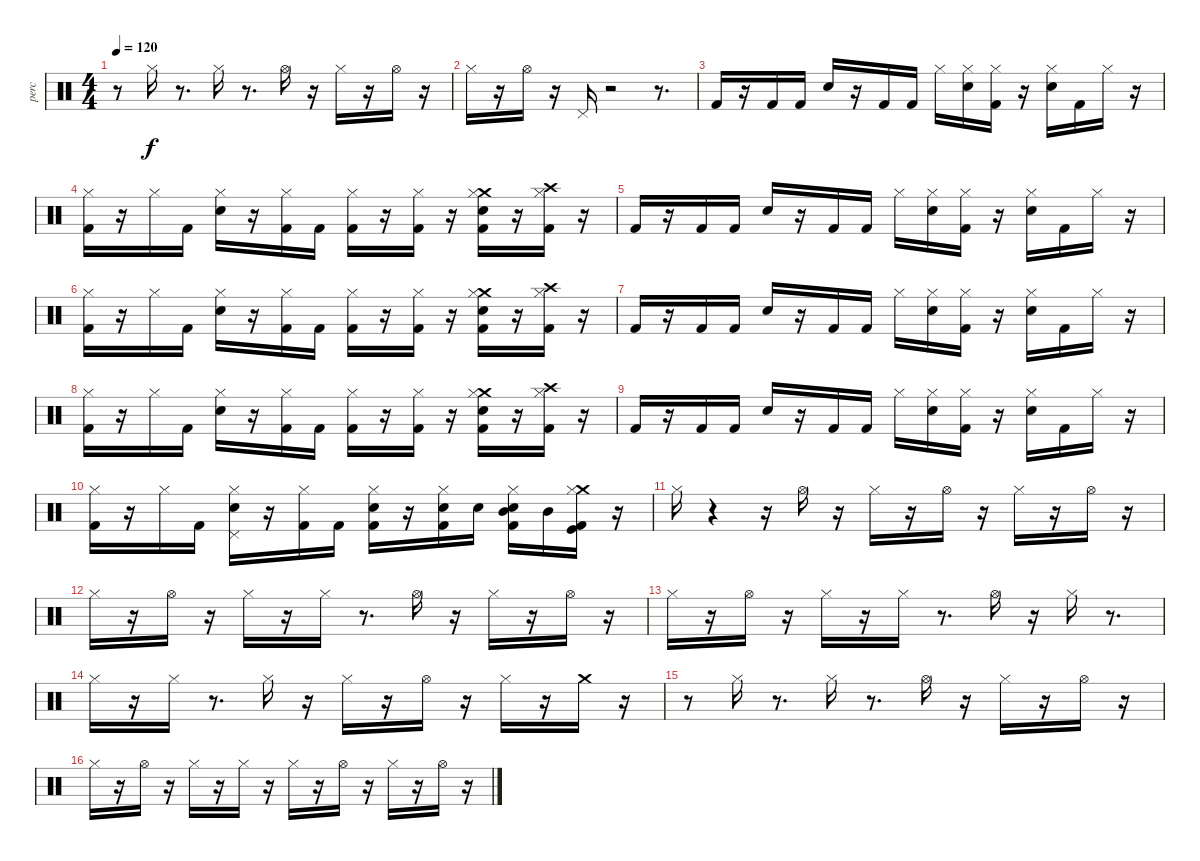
\track ("perc" "perc") {instrument percussion}
\staff {score}
\articulation defaults
\ts (4 4)
\tempo 120
\clef neutral
\ks c
r.8{dy f} "Hi-Hat (closed)".16 r.8{d} "Hi-Hat (closed)".16 r.8{d} "Hi-Hat (open)".16 r.16 "Hi-Hat (closed)".16 r.16 "Hi-Hat (open)".16 r.16 |
"Hi-Hat (closed)".16 r.16 "Hi-Hat (open)".16 r.16 "Pedal Hi-Hat (hit)".16 r.2 r.8{d} |
"Kick (hit) 2".16 r.16 "Kick (hit) 2".16 "Kick (hit) 2".16 "Electric Snare (hit)".16 r.16 "Kick (hit) 2".16 "Kick (hit) 2".16 "Hi-Hat (closed)".16 ("Hi-Hat (closed)" "Electric Snare (hit)").16 ("Hi-Hat (closed)" "Kick (hit) 2").16 r.16 ("Hi-Hat (closed)" "Electric Snare (hit)").16 "Kick (hit) 2".16 "Hi-Hat (closed)".16 r.16 |
("Kick (hit) 2" "Hi-Hat (closed)").16 r.16 "Hi-Hat (closed)".16 "Kick (hit) 2".16 ("Electric Snare (hit)" "Hi-Hat (closed)").16 r.16 ("Kick (hit) 2" "Hi-Hat (closed)").16 "Kick (hit) 2".16 ("Kick (hit) 2" "Hi-Hat (closed)").16 r.16 ("Kick (hit) 2" "Hi-Hat (closed)").16 r.16 ("Crash medium (hit)" "Electric Snare (hit)" "Kick (hit) 2" "Hi-Hat (closed)").16 r.16 ("Crash high (hit)" "Kick (hit) 2" "Hi-Hat (closed)").16 r.16 |
"Kick (hit) 2".16 r.16 "Kick (hit) 2".16 "Kick (hit) 2".16 "Electric Snare (hit)".16 r.16 "Kick (hit) 2".16 "Kick (hit) 2".16 "Hi-Hat (closed)".16 ("Hi-Hat (closed)" "Electric Snare (hit)").16 ("Hi-Hat (closed)" "Kick (hit) 2").16 r.16 ("Hi-Hat (closed)" "Electric Snare (hit)").16 "Kick (hit) 2".16 "Hi-Hat (closed)".16 r.16 |
("Kick (hit) 2" "Hi-Hat (closed)").16 r.16 "Hi-Hat (closed)".16 "Kick (hit) 2".16 ("Electric Snare (hit)" "Hi-Hat (closed)").16 r.16 ("Kick (hit) 2" "Hi-Hat (closed)").16 "Kick (hit) 2".16 ("Kick (hit) 2" "Hi-Hat (closed)").16 r.16 ("Kick (hit) 2" "Hi-Hat (closed)").16 r.16 ("Crash medium (hit)" "Electric Snare (hit)" "Kick (hit) 2" "Hi-Hat (closed)").16 r.16 ("Crash high (hit)" "Kick (hit) 2" "Hi-Hat (closed)").16 r.16 |
"Kick (hit) 2".16 r.16 "Kick (hit) 2".16 "Kick (hit) 2".16 "Electric Snare (hit)".16 r.16 "Kick (hit) 2".16 "Kick (hit) 2".16 "Hi-Hat (closed)".16 ("Hi-Hat (closed)" "Electric Snare (hit)").16 ("Hi-Hat (closed)" "Kick (hit) 2").16 r.16 ("Hi-Hat (closed)" "Electric Snare (hit)").16 "Kick (hit) 2".16 "Hi-Hat (closed)".16 r.16 |
("Kick (hit) 2" "Hi-Hat (closed)").16 r.16 "Hi-Hat (closed)".16 "Kick (hit) 2".16 ("Electric Snare (hit)" "Hi-Hat (closed)").16 r.16 ("Kick (hit) 2" "Hi-Hat (closed)").16 "Kick (hit) 2".16 ("Kick (hit) 2" "Hi-Hat (closed)").16 r.16 ("Kick (hit) 2" "Hi-Hat (closed)").16 r.16 ("Crash medium (hit)" "Electric Snare (hit)" "Kick (hit) 2" "Hi-Hat (closed)").16 r.16 ("Crash high (hit)" "Kick (hit) 2" "Hi-Hat (closed)").16 r.16 |
"Kick (hit) 2".16 r.16 "Kick (hit) 2".16 "Kick (hit) 2".16 "Electric Snare (hit)".16 r.16 "Kick (hit) 2".16 "Kick (hit) 2".16 "Hi-Hat (closed)".16 ("Hi-Hat (closed)" "Electric Snare (hit)").16 ("Hi-Hat (closed)" "Kick (hit) 2").16 r.16 ("Hi-Hat (closed)" "Electric Snare (hit)").16 "Kick (hit) 2".16 "Hi-Hat (closed)".16 r.16 |
("Kick (hit) 2" "Hi-Hat (closed)").16 r.16 "Hi-Hat (closed)".16 "Kick (hit) 2".16 ("Pedal Hi-Hat (hit)" "Electric Snare (hit)" "Hi-Hat (closed)").16 r.16 ("Kick (hit) 2" "Hi-Hat (closed)").16 "Kick (hit) 2".16 ("Snare (hit) 2" "Kick (hit) 2" "Hi-Hat (closed)").16 r.16 ("Snare (hit) 2" "Kick (hit) 2" "Hi-Hat (closed)").16 "Snare (hit) 2".16 ("Mid Tom (hit)" "Electric Snare (hit)" "Kick (hit) 2" "Hi-Hat (closed)").16 "Mid Tom (hit)".16 ("Crash medium (hit)" "Kick (hit)" "Kick (hit) 2" "Hi-Hat (closed)").16 r.16 |
"Hi-Hat (closed)".16 r.4 r.16 "Hi-Hat (open)".16 r.16 "Hi-Hat (closed)".16 r.16 "Hi-Hat (open)".16 r.16 "Hi-Hat (closed)".16 r.16 "Hi-Hat (open)".16 r.16 |
"Hi-Hat (closed)".16 r.16 "Hi-Hat (open)".16 r.16 "Hi-Hat (closed)".16 r.16 "Hi-Hat (closed)".16 r.8{d} "Hi-Hat (open)".16 r.16 "Hi-Hat (closed)".16 r.16 "Hi-Hat (open)".16 r.16 |
"Hi-Hat (closed)".16 r.16 "Hi-Hat (open)".16 r.16 "Hi-Hat (closed)".16 r.16 "Hi-Hat (closed)".16 r.8{d} "Hi-Hat (open)".16 r.16 "Hi-Hat (closed)".16 r.8{d} |
"Hi-Hat (closed)".16 r.16 "Hi-Hat (closed)".16 r.8{d} "Hi-Hat (closed)".16 r.16 "Hi-Hat (closed)".16 r.16 "Hi-Hat (open)".16 r.16 "Hi-Hat (closed)".16 r.16 "Crash medium (hit)".16 r.16 |
r.8 "Hi-Hat (closed)".16 r.8{d} "Hi-Hat (closed)".16 r.8{d} "Hi-Hat (open)".16 r.16 "Hi-Hat (closed)".16 r.16 "Hi-Hat (open)".16 r.16 |
"Hi-Hat (closed)".16 r.16 "Hi-Hat (open)".16 r.16 "Hi-Hat (closed)".16 r.16 "Hi-Hat (closed)".16 r.16 "Hi-Hat (closed)".16 r.16 "Hi-Hat (open)".16 r.16 "Hi-Hat (closed)".16 r.16 "Hi-Hat (open)".16 r.16
